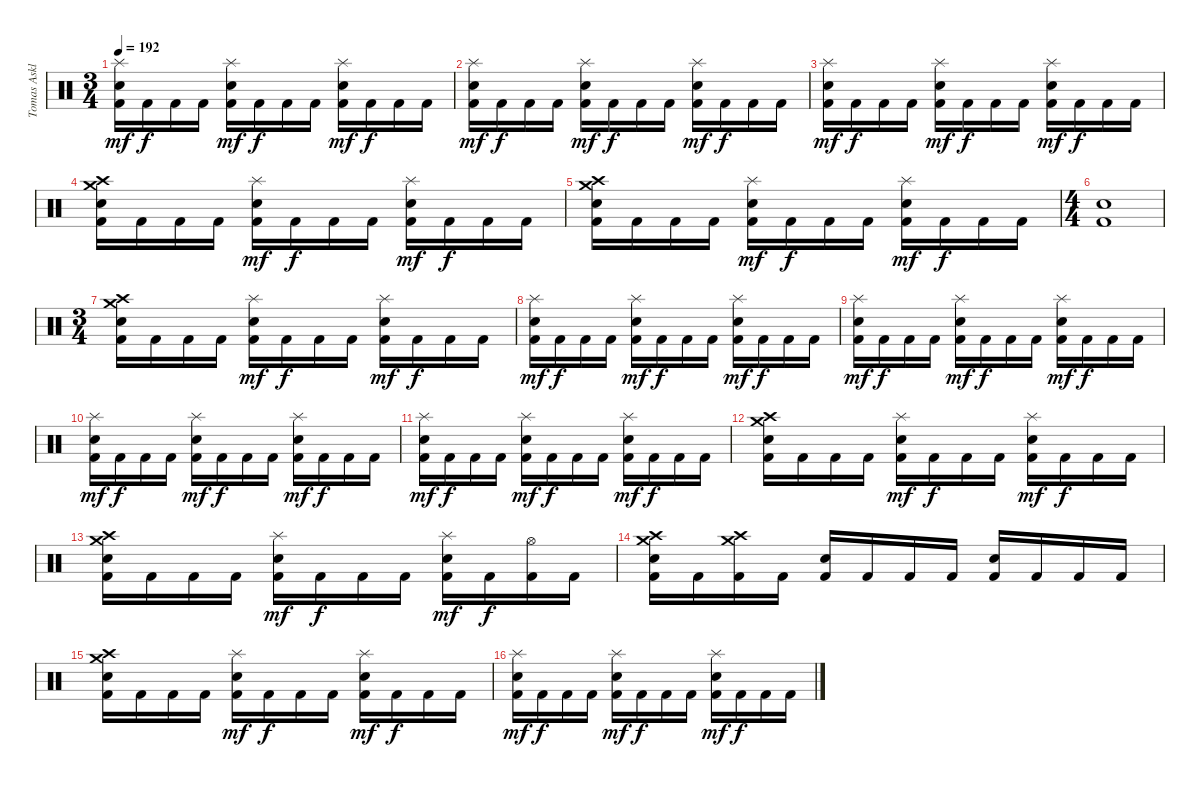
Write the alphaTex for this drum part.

\track ("Tomas Asklund" "Tomas Askl") {instrument percussion}
\staff {score}
\articulation defaults
\ts (3 4)
\tempo 192
\clef neutral
\ks c
("Splash (hit)" "Snare (hit) 2" "Kick (hit) 2").16{dy mf} "Kick (hit) 2".16{dy f} "Kick (hit) 2".16 "Kick (hit) 2".16 ("Splash (hit)" "Snare (hit) 2" "Kick (hit) 2").16{dy mf} "Kick (hit) 2".16{dy f} "Kick (hit) 2".16 "Kick (hit) 2".16 ("Splash (hit)" "Snare (hit) 2" "Kick (hit) 2").16{dy mf} "Kick (hit) 2".16{dy f} "Kick (hit) 2".16 "Kick (hit) 2".16 |
("Splash (hit)" "Snare (hit) 2" "Kick (hit) 2").16{dy mf} "Kick (hit) 2".16{dy f} "Kick (hit) 2".16 "Kick (hit) 2".16 ("Splash (hit)" "Snare (hit) 2" "Kick (hit) 2").16{dy mf} "Kick (hit) 2".16{dy f} "Kick (hit) 2".16 "Kick (hit) 2".16 ("Splash (hit)" "Snare (hit) 2" "Kick (hit) 2").16{dy mf} "Kick (hit) 2".16{dy f} "Kick (hit) 2".16 "Kick (hit) 2".16 |
("Splash (hit)" "Snare (hit) 2" "Kick (hit) 2").16{dy mf} "Kick (hit) 2".16{dy f} "Kick (hit) 2".16 "Kick (hit) 2".16 ("Splash (hit)" "Snare (hit) 2" "Kick (hit) 2").16{dy mf} "Kick (hit) 2".16{dy f} "Kick (hit) 2".16 "Kick (hit) 2".16 ("Splash (hit)" "Snare (hit) 2" "Kick (hit) 2").16{dy mf} "Kick (hit) 2".16{dy f} "Kick (hit) 2".16 "Kick (hit) 2".16 |
("Crash high (hit)" "Crash medium (hit)" "Snare (hit) 2" "Kick (hit) 2").16 "Kick (hit) 2".16 "Kick (hit) 2".16 "Kick (hit) 2".16 ("Splash (hit)" "Snare (hit) 2" "Kick (hit) 2").16{dy mf} "Kick (hit) 2".16{dy f} "Kick (hit) 2".16 "Kick (hit) 2".16 ("Splash (hit)" "Snare (hit) 2" "Kick (hit) 2").16{dy mf} "Kick (hit) 2".16{dy f} "Kick (hit) 2".16 "Kick (hit) 2".16 |
("Crash high (hit)" "Crash medium (hit)" "Snare (hit) 2" "Kick (hit) 2").16 "Kick (hit) 2".16 "Kick (hit) 2".16 "Kick (hit) 2".16 ("Splash (hit)" "Snare (hit) 2" "Kick (hit) 2").16{dy mf} "Kick (hit) 2".16{dy f} "Kick (hit) 2".16 "Kick (hit) 2".16 ("Splash (hit)" "Snare (hit) 2" "Kick (hit) 2").16{dy mf} "Kick (hit) 2".16{dy f} "Kick (hit) 2".16 "Kick (hit) 2".16 |
\ts (4 4)
("Snare (hit) 2" "Kick (hit) 2").1 |
\ts (3 4)
("Crash high (hit)" "Crash medium (hit)" "Snare (hit) 2" "Kick (hit) 2").16 "Kick (hit) 2".16 "Kick (hit) 2".16 "Kick (hit) 2".16 ("Splash (hit)" "Snare (hit) 2" "Kick (hit) 2").16{dy mf} "Kick (hit) 2".16{dy f} "Kick (hit) 2".16 "Kick (hit) 2".16 ("Splash (hit)" "Snare (hit) 2" "Kick (hit) 2").16{dy mf} "Kick (hit) 2".16{dy f} "Kick (hit) 2".16 "Kick (hit) 2".16 |
("Splash (hit)" "Snare (hit) 2" "Kick (hit) 2").16{dy mf} "Kick (hit) 2".16{dy f} "Kick (hit) 2".16 "Kick (hit) 2".16 ("Splash (hit)" "Snare (hit) 2" "Kick (hit) 2").16{dy mf} "Kick (hit) 2".16{dy f} "Kick (hit) 2".16 "Kick (hit) 2".16 ("Splash (hit)" "Snare (hit) 2" "Kick (hit) 2").16{dy mf} "Kick (hit) 2".16{dy f} "Kick (hit) 2".16 "Kick (hit) 2".16 |
("Splash (hit)" "Snare (hit) 2" "Kick (hit) 2").16{dy mf} "Kick (hit) 2".16{dy f} "Kick (hit) 2".16 "Kick (hit) 2".16 ("Splash (hit)" "Snare (hit) 2" "Kick (hit) 2").16{dy mf} "Kick (hit) 2".16{dy f} "Kick (hit) 2".16 "Kick (hit) 2".16 ("Splash (hit)" "Snare (hit) 2" "Kick (hit) 2").16{dy mf} "Kick (hit) 2".16{dy f} "Kick (hit) 2".16 "Kick (hit) 2".16 |
("Splash (hit)" "Snare (hit) 2" "Kick (hit) 2").16{dy mf} "Kick (hit) 2".16{dy f} "Kick (hit) 2".16 "Kick (hit) 2".16 ("Splash (hit)" "Snare (hit) 2" "Kick (hit) 2").16{dy mf} "Kick (hit) 2".16{dy f} "Kick (hit) 2".16 "Kick (hit) 2".16 ("Splash (hit)" "Snare (hit) 2" "Kick (hit) 2").16{dy mf} "Kick (hit) 2".16{dy f} "Kick (hit) 2".16 "Kick (hit) 2".16 |
("Splash (hit)" "Snare (hit) 2" "Kick (hit) 2").16{dy mf} "Kick (hit) 2".16{dy f} "Kick (hit) 2".16 "Kick (hit) 2".16 ("Splash (hit)" "Snare (hit) 2" "Kick (hit) 2").16{dy mf} "Kick (hit) 2".16{dy f} "Kick (hit) 2".16 "Kick (hit) 2".16 ("Splash (hit)" "Snare (hit) 2" "Kick (hit) 2").16{dy mf} "Kick (hit) 2".16{dy f} "Kick (hit) 2".16 "Kick (hit) 2".16 |
("Crash high (hit)" "Crash medium (hit)" "Snare (hit) 2" "Kick (hit) 2").16 "Kick (hit) 2".16 "Kick (hit) 2".16 "Kick (hit) 2".16 ("Splash (hit)" "Snare (hit) 2" "Kick (hit) 2").16{dy mf} "Kick (hit) 2".16{dy f} "Kick (hit) 2".16 "Kick (hit) 2".16 ("Splash (hit)" "Snare (hit) 2" "Kick (hit) 2").16{dy mf} "Kick (hit) 2".16{dy f} "Kick (hit) 2".16 "Kick (hit) 2".16 |
("Crash high (hit)" "Crash medium (hit)" "Snare (hit) 2" "Kick (hit) 2").16 "Kick (hit) 2".16 "Kick (hit) 2".16 "Kick (hit) 2".16 ("Splash (hit)" "Snare (hit) 2" "Kick (hit) 2").16{dy mf} "Kick (hit) 2".16{dy f} "Kick (hit) 2".16 "Kick (hit) 2".16 ("Splash (hit)" "Snare (hit) 2" "Kick (hit) 2").16{dy mf} "Kick (hit) 2".16{dy f} ("Hi-Hat (open)" "Kick (hit) 2").16 "Kick (hit) 2".16 |
("Crash high (hit)" "Crash medium (hit)" "Snare (hit) 2" "Kick (hit) 2").16 "Kick (hit) 2".16 ("Crash high (hit)" "Crash medium (hit)" "Kick (hit) 2").16 "Kick (hit) 2".16 ("Snare (hit) 2" "Kick (hit) 2").16 "Kick (hit) 2".16 "Kick (hit) 2".16 "Kick (hit) 2".16 ("Snare (hit) 2" "Kick (hit) 2").16 "Kick (hit) 2".16 "Kick (hit) 2".16 "Kick (hit) 2".16 |
("Crash high (hit)" "Crash medium (hit)" "Snare (hit) 2" "Kick (hit) 2").16 "Kick (hit) 2".16 "Kick (hit) 2".16 "Kick (hit) 2".16 ("Splash (hit)" "Snare (hit) 2" "Kick (hit) 2").16{dy mf} "Kick (hit) 2".16{dy f} "Kick (hit) 2".16 "Kick (hit) 2".16 ("Splash (hit)" "Snare (hit) 2" "Kick (hit) 2").16{dy mf} "Kick (hit) 2".16{dy f} "Kick (hit) 2".16 "Kick (hit) 2".16 |
("Splash (hit)" "Snare (hit) 2" "Kick (hit) 2").16{dy mf} "Kick (hit) 2".16{dy f} "Kick (hit) 2".16 "Kick (hit) 2".16 ("Splash (hit)" "Snare (hit) 2" "Kick (hit) 2").16{dy mf} "Kick (hit) 2".16{dy f} "Kick (hit) 2".16 "Kick (hit) 2".16 ("Splash (hit)" "Snare (hit) 2" "Kick (hit) 2").16{dy mf} "Kick (hit) 2".16{dy f} "Kick (hit) 2".16 "Kick (hit) 2".16
